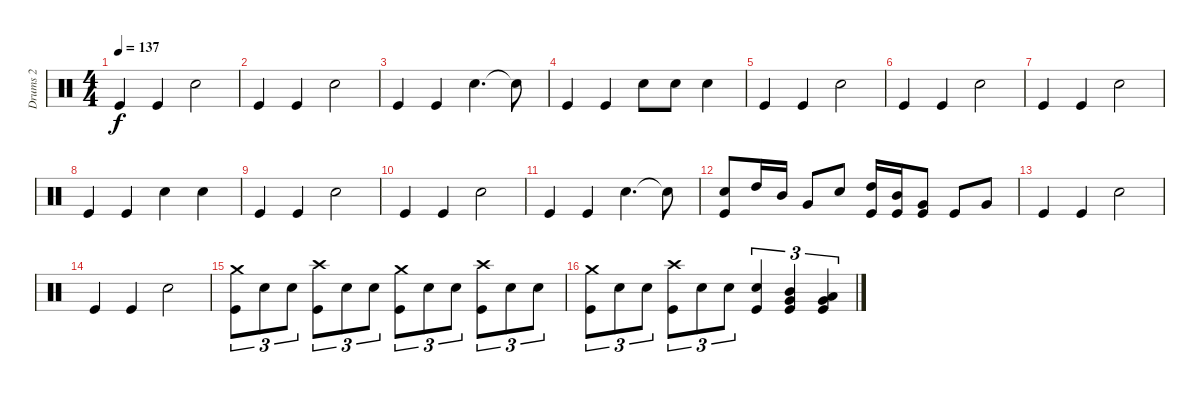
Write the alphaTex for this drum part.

\track ("Drums 2" "Drums 2") {instrument percussion}
\staff {score}
\articulation defaults
\ts (4 4)
\tempo 137
\clef neutral
\ks c "Kick (hit)".4{dy f} "Kick (hit)".4 "Snare (hit) 2".2
|
"Kick (hit)".4 "Kick (hit)".4 "Snare (hit) 2".2 |
"Kick (hit)".4 "Kick (hit)".4 "Snare (hit) 2".4{d} "Snare (hit) 2"{t}.8 |
"Kick (hit)".4 "Kick (hit)".4 "Snare (hit) 2".8 "Snare (hit) 2".8 "Snare (hit) 2".4 |
"Kick (hit)".4 "Kick (hit)".4 "Snare (hit) 2".2 |
"Kick (hit)".4 "Kick (hit)".4 "Snare (hit) 2".2 |
"Kick (hit)".4 "Kick (hit)".4 "Snare (hit) 2".2 |
"Kick (hit)".4 "Kick (hit)".4 "Snare (hit) 2".4 "Snare (hit) 2".4 |
"Kick (hit)".4 "Kick (hit)".4 "Snare (hit) 2".2 |
"Kick (hit)".4 "Kick (hit)".4 "Snare (hit) 2".2 |
"Kick (hit)".4 "Kick (hit)".4 "Snare (hit) 2".4{d} "Snare (hit) 2"{t}.8 |
("Snare (hit) 2" "Kick (hit)").8 "High Tom (hit)".16 "Mid Tom (hit)".16 "Very Low Tom (hit)".8 "Snare (hit) 2".8 ("High Tom (hit)" "Kick (hit)").16 ("Mid Tom (hit)" "Kick (hit)").16 ("Very Low Tom (hit)" "Kick (hit)").8 "Kick (hit)".8 "Very Low Tom (hit)".8 |
"Kick (hit)".4 "Kick (hit)".4 "Snare (hit) 2".2 |
"Kick (hit)".4 "Kick (hit)".4 "Snare (hit) 2".2 |
("Crash medium (hit)" "Kick (hit)").8{tu (3 2)} "Snare (hit) 2".8{tu (3 2)} "Snare (hit) 2".8{tu (3 2)} ("Crash high (hit)" "Kick (hit)").8{tu (3 2)} "Snare (hit) 2".8{tu (3 2)} "Snare (hit) 2".8{tu (3 2)} ("Crash medium (hit)" "Kick (hit)").8{tu (3 2)} "Snare (hit) 2".8{tu (3 2)} "Snare (hit) 2".8{tu (3 2)} ("Crash high (hit)" "Kick (hit)").8{tu (3 2)} "Snare (hit) 2".8{tu (3 2)} "Snare (hit) 2".8{tu (3 2)} |
("Crash medium (hit)" "Kick (hit)").8{tu (3 2)} "Snare (hit) 2".8{tu (3 2)} "Snare (hit) 2".8{tu (3 2)} ("Crash high (hit)" "Kick (hit)").8{tu (3 2)} "Snare (hit) 2".8{tu (3 2)} "Snare (hit) 2".8{tu (3 2)} ("Snare (hit) 2" "Kick (hit)").4{tu (3 2)} ("Mid Tom (hit)" "Very Low Tom (hit)" "Kick (hit)").4{tu (3 2)} ("Very Low Tom (hit)" "Low Floor Tom (hit)" "Kick (hit)").4{tu (3 2)}
